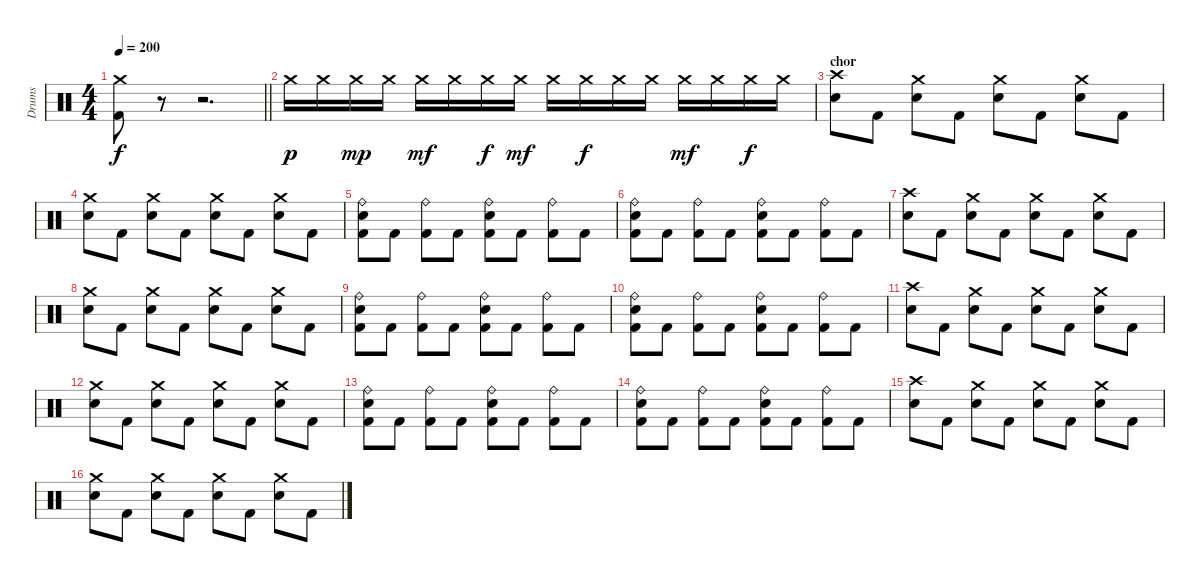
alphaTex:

\track ("Drums" "Drums") {instrument percussion}
\staff {score}
\articulation defaults
\ts (4 4)
\tempo 200
\clef neutral
\barLineRight lightlight
\ks c
("Crash medium (hit)" "Kick (hit) 2").8{dy f} r.8{volume 0} r.2{d} |
"Crash medium (hit)".16{dy p volume 16} "Crash medium (hit)".16 "Crash medium (hit)".16{dy mp} "Crash medium (hit)".16 "Crash medium (hit)".16{dy mf} "Crash medium (hit)".16 "Crash medium (hit)".16{dy f} "Crash medium (hit)".16{dy mf} "Crash medium (hit)".16 "Crash medium (hit)".16{dy f} "Crash medium (hit)".16 "Crash medium (hit)".16 "Crash medium (hit)".16{dy mf} "Crash medium (hit)".16 "Crash medium (hit)".16{dy f} "Crash medium (hit)".16 |
\section ("" "chor")
("Crash high (hit)" "Electric Snare (hit)").8 "Kick (hit) 2".8 ("Crash medium (hit)" "Electric Snare (hit)").8 "Kick (hit) 2".8 ("Crash medium (hit)" "Electric Snare (hit)").8 "Kick (hit) 2".8 ("Crash medium (hit)" "Electric Snare (hit)").8 "Kick (hit) 2".8 |
("Crash medium (hit)" "Electric Snare (hit)").8 "Kick (hit) 2".8 ("Crash medium (hit)" "Electric Snare (hit)").8 "Kick (hit) 2".8 ("Crash medium (hit)" "Electric Snare (hit)").8 "Kick (hit) 2".8 ("Crash medium (hit)" "Electric Snare (hit)").8 "Kick (hit) 2".8 |
("Ride (bell)" "Electric Snare (hit)" "Kick (hit) 2").8 "Kick (hit) 2".8 ("Ride (bell)" "Kick (hit) 2").8 "Kick (hit) 2".8 ("Ride (bell)" "Electric Snare (hit)" "Kick (hit) 2").8 "Kick (hit) 2".8 ("Ride (bell)" "Kick (hit) 2").8 "Kick (hit) 2".8 |
("Ride (bell)" "Electric Snare (hit)" "Kick (hit) 2").8 "Kick (hit) 2".8 ("Ride (bell)" "Kick (hit) 2").8 "Kick (hit) 2".8 ("Ride (bell)" "Electric Snare (hit)" "Kick (hit) 2").8 "Kick (hit) 2".8 ("Ride (bell)" "Kick (hit) 2").8 "Kick (hit) 2".8 |
("Crash high (hit)" "Electric Snare (hit)").8 "Kick (hit) 2".8 ("Crash medium (hit)" "Electric Snare (hit)").8 "Kick (hit) 2".8 ("Crash medium (hit)" "Electric Snare (hit)").8 "Kick (hit) 2".8 ("Crash medium (hit)" "Electric Snare (hit)").8 "Kick (hit) 2".8 |
("Crash medium (hit)" "Electric Snare (hit)").8 "Kick (hit) 2".8 ("Crash medium (hit)" "Electric Snare (hit)").8 "Kick (hit) 2".8 ("Crash medium (hit)" "Electric Snare (hit)").8 "Kick (hit) 2".8 ("Crash medium (hit)" "Electric Snare (hit)").8 "Kick (hit) 2".8 |
("Ride (bell)" "Electric Snare (hit)" "Kick (hit) 2").8 "Kick (hit) 2".8 ("Ride (bell)" "Kick (hit) 2").8 "Kick (hit) 2".8 ("Ride (bell)" "Electric Snare (hit)" "Kick (hit) 2").8 "Kick (hit) 2".8 ("Ride (bell)" "Kick (hit) 2").8 "Kick (hit) 2".8 |
("Ride (bell)" "Electric Snare (hit)" "Kick (hit) 2").8 "Kick (hit) 2".8 ("Ride (bell)" "Kick (hit) 2").8 "Kick (hit) 2".8 ("Ride (bell)" "Electric Snare (hit)" "Kick (hit) 2").8 "Kick (hit) 2".8 ("Ride (bell)" "Kick (hit) 2").8 "Kick (hit) 2".8 |
("Crash high (hit)" "Electric Snare (hit)").8 "Kick (hit) 2".8 ("Crash medium (hit)" "Electric Snare (hit)").8 "Kick (hit) 2".8 ("Crash medium (hit)" "Electric Snare (hit)").8 "Kick (hit) 2".8 ("Crash medium (hit)" "Electric Snare (hit)").8 "Kick (hit) 2".8 |
("Crash medium (hit)" "Electric Snare (hit)").8 "Kick (hit) 2".8 ("Crash medium (hit)" "Electric Snare (hit)").8 "Kick (hit) 2".8 ("Crash medium (hit)" "Electric Snare (hit)").8 "Kick (hit) 2".8 ("Crash medium (hit)" "Electric Snare (hit)").8 "Kick (hit) 2".8 |
("Ride (bell)" "Electric Snare (hit)" "Kick (hit) 2").8 "Kick (hit) 2".8 ("Ride (bell)" "Kick (hit) 2").8 "Kick (hit) 2".8 ("Ride (bell)" "Electric Snare (hit)" "Kick (hit) 2").8 "Kick (hit) 2".8 ("Ride (bell)" "Kick (hit) 2").8 "Kick (hit) 2".8 |
("Ride (bell)" "Electric Snare (hit)" "Kick (hit) 2").8 "Kick (hit) 2".8 ("Ride (bell)" "Kick (hit) 2").8 "Kick (hit) 2".8 ("Ride (bell)" "Electric Snare (hit)" "Kick (hit) 2").8 "Kick (hit) 2".8 ("Ride (bell)" "Kick (hit) 2").8 "Kick (hit) 2".8 |
("Crash high (hit)" "Electric Snare (hit)").8 "Kick (hit) 2".8 ("Crash medium (hit)" "Electric Snare (hit)").8 "Kick (hit) 2".8 ("Crash medium (hit)" "Electric Snare (hit)").8 "Kick (hit) 2".8 ("Crash medium (hit)" "Electric Snare (hit)").8 "Kick (hit) 2".8 |
("Crash medium (hit)" "Electric Snare (hit)").8 "Kick (hit) 2".8 ("Crash medium (hit)" "Electric Snare (hit)").8 "Kick (hit) 2".8 ("Crash medium (hit)" "Electric Snare (hit)").8 "Kick (hit) 2".8 ("Crash medium (hit)" "Electric Snare (hit)").8 "Kick (hit) 2".8
